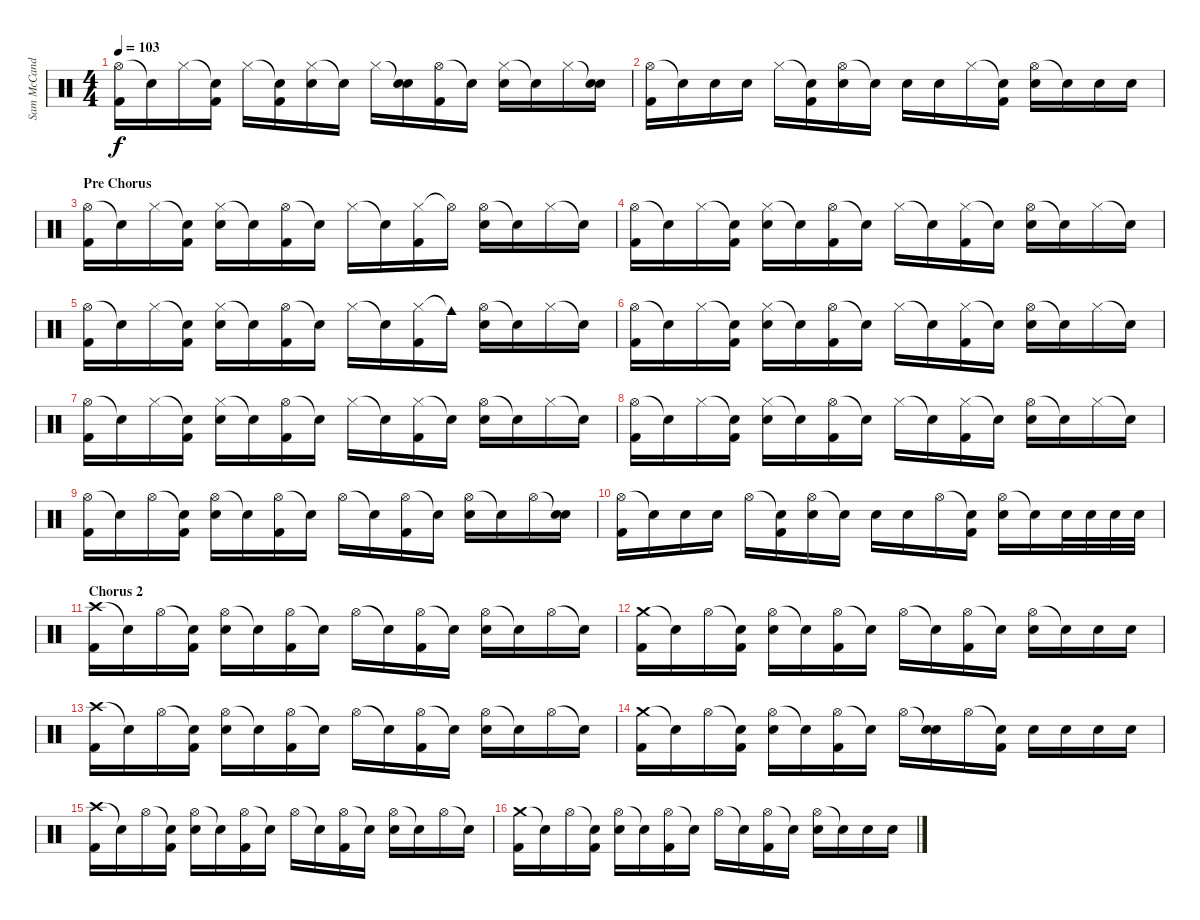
\track ("Sam McCandless (Drums)" "Sam McCand") {instrument percussion}
\staff {score}
\articulation defaults
\ts (4 4)
\tempo 103
\clef neutral
\ks c
("Hi-Hat (open)" "Kick (hit) 2").16{dy f} "Snare (hit)"{t}.16 "Hi-Hat (closed)".16 ("Snare (hit)"{t} "Kick (hit) 2").16 "Hi-Hat (closed)".16 ("Snare (hit)"{t} "Kick (hit) 2").16 ("Hi-Hat (closed)" "Electric Snare (hit)").16 "Snare (hit)"{t}.16 "Hi-Hat (closed)".16 ("Snare (hit)"{t} "Electric Snare (hit)").16 ("Hi-Hat (open)" "Kick (hit) 2").16 "Snare (hit)"{t}.16 ("Hi-Hat (closed)" "Electric Snare (hit)").16 "Snare (hit)"{t}.16 "Hi-Hat (closed)".16 ("Snare (hit)"{t} "Electric Snare (hit)").16 |
("Hi-Hat (open)" "Kick (hit) 2").16 "Snare (hit)"{t}.16 "Electric Snare (hit)".16 "Electric Snare (hit)".16 "Hi-Hat (closed)".16 ("Snare (hit)"{t} "Kick (hit) 2").16 ("Hi-Hat (open)" "Electric Snare (hit)").16 "Snare (hit)"{t}.16 "Electric Snare (hit)".16 "Electric Snare (hit)".16 "Hi-Hat (closed)".16 ("Snare (hit)"{t} "Kick (hit) 2").16 ("Hi-Hat (open)" "Electric Snare (hit)").16 "Snare (hit)"{t}.16 "Electric Snare (hit)".16 "Electric Snare (hit)".16 |
\section ("" "Pre Chorus")
("Hi-Hat (open)" "Kick (hit) 2").16 "Snare (hit)"{t}.16 "Hi-Hat (closed)".16 ("Snare (hit)"{t} "Kick (hit) 2").16 ("Hi-Hat (closed)" "Electric Snare (hit)").16 "Snare (hit)"{t}.16 ("Hi-Hat (open)" "Kick (hit) 2").16 "Snare (hit)"{t}.16 "Hi-Hat (closed)".16 "Snare (hit)"{t}.16 ("Hi-Hat (closed)" "Kick (hit) 2").16 "Hi-Hat (open)"{t}.16 ("Hi-Hat (open)" "Electric Snare (hit)").16 "Snare (hit)"{t}.16 "Hi-Hat (closed)".16 "Snare (hit)"{t}.16 |
("Hi-Hat (open)" "Kick (hit) 2").16 "Snare (hit)"{t}.16 "Hi-Hat (closed)".16 ("Snare (hit)"{t} "Kick (hit) 2").16 ("Hi-Hat (closed)" "Electric Snare (hit)").16 "Snare (hit)"{t}.16 ("Hi-Hat (open)" "Kick (hit) 2").16 "Snare (hit)"{t}.16 "Hi-Hat (closed)".16 "Snare (hit)"{t}.16 ("Hi-Hat (closed)" "Kick (hit) 2").16 "Snare (hit)"{t}.16 ("Hi-Hat (open)" "Electric Snare (hit)").16 "Snare (hit)"{t}.16 "Hi-Hat (closed)".16 "Snare (hit)"{t}.16 |
("Hi-Hat (open)" "Kick (hit) 2").16 "Snare (hit)"{t}.16 "Hi-Hat (closed)".16 ("Snare (hit)"{t} "Kick (hit) 2").16 ("Hi-Hat (closed)" "Electric Snare (hit)").16 "Snare (hit)"{t}.16 ("Hi-Hat (open)" "Kick (hit) 2").16 "Snare (hit)"{t}.16 "Hi-Hat (closed)".16 "Snare (hit)"{t}.16 ("Hi-Hat (closed)" "Kick (hit) 2").16 "Cowbell medium (hit)"{t}.16 ("Hi-Hat (open)" "Electric Snare (hit)").16 "Snare (hit)"{t}.16 "Hi-Hat (closed)".16 "Snare (hit)"{t}.16 |
("Hi-Hat (open)" "Kick (hit) 2").16 "Snare (hit)"{t}.16 "Hi-Hat (closed)".16 ("Snare (hit)"{t} "Kick (hit) 2").16 ("Hi-Hat (closed)" "Electric Snare (hit)").16 "Snare (hit)"{t}.16 ("Hi-Hat (open)" "Kick (hit) 2").16 "Snare (hit)"{t}.16 "Hi-Hat (closed)".16 "Snare (hit)"{t}.16 ("Hi-Hat (closed)" "Kick (hit) 2").16 "Snare (hit)"{t}.16 ("Hi-Hat (open)" "Electric Snare (hit)").16 "Snare (hit)"{t}.16 "Hi-Hat (closed)".16 "Snare (hit)"{t}.16 |
("Hi-Hat (open)" "Kick (hit) 2").16 "Snare (hit)"{t}.16 "Hi-Hat (closed)".16 ("Snare (hit)"{t} "Kick (hit) 2").16 ("Hi-Hat (closed)" "Electric Snare (hit)").16 "Snare (hit)"{t}.16 ("Hi-Hat (open)" "Kick (hit) 2").16 "Snare (hit)"{t}.16 "Hi-Hat (closed)".16 "Snare (hit)"{t}.16 ("Hi-Hat (closed)" "Kick (hit) 2").16 "Snare (hit)"{t}.16 ("Hi-Hat (open)" "Electric Snare (hit)").16 "Snare (hit)"{t}.16 "Hi-Hat (closed)".16 "Snare (hit)"{t}.16 |
("Hi-Hat (open)" "Kick (hit) 2").16 "Snare (hit)"{t}.16 "Hi-Hat (closed)".16 ("Snare (hit)"{t} "Kick (hit) 2").16 ("Hi-Hat (closed)" "Electric Snare (hit)").16 "Snare (hit)"{t}.16 ("Hi-Hat (open)" "Kick (hit) 2").16 "Snare (hit)"{t}.16 "Hi-Hat (closed)".16 "Snare (hit)"{t}.16 ("Hi-Hat (closed)" "Kick (hit) 2").16 "Snare (hit)"{t}.16 ("Hi-Hat (open)" "Electric Snare (hit)").16 "Snare (hit)"{t}.16 "Hi-Hat (closed)".16 "Snare (hit)"{t}.16 |
("Hi-Hat (open)" "Kick (hit) 2").16 "Snare (hit)"{t}.16 "Hi-Hat (open)".16 ("Snare (hit)"{t} "Kick (hit) 2").16 ("Hi-Hat (open)" "Electric Snare (hit)").16 "Snare (hit)"{t}.16 ("Hi-Hat (open)" "Kick (hit) 2").16 "Snare (hit)"{t}.16 "Hi-Hat (open)".16 "Snare (hit)"{t}.16 ("Hi-Hat (open)" "Kick (hit) 2").16 "Snare (hit)"{t}.16 ("Hi-Hat (open)" "Electric Snare (hit)").16 "Snare (hit)"{t}.16 "Hi-Hat (open)".16 ("Snare (hit)"{t} "Electric Snare (hit)").16 |
("Hi-Hat (open)" "Kick (hit) 2").16 "Snare (hit)"{t}.16 "Electric Snare (hit)".16 "Electric Snare (hit)".16 "Hi-Hat (open)".16 ("Snare (hit)"{t} "Kick (hit) 2").16 ("Hi-Hat (open)" "Electric Snare (hit)").16 "Snare (hit)"{t}.16 "Electric Snare (hit)".16 "Electric Snare (hit)".16 "Hi-Hat (open)".16 ("Snare (hit)"{t} "Kick (hit) 2").16 ("Hi-Hat (open)" "Electric Snare (hit)").16 "Snare (hit)"{t}.16 "Electric Snare (hit)".32 "Electric Snare (hit)".32 "Electric Snare (hit)".32 "Electric Snare (hit)".32 |
\section ("" "Chorus 2")
("Crash high (hit)" "Kick (hit) 2").16 "Snare (hit)"{t}.16 "Hi-Hat (open)".16 ("Snare (hit)"{t} "Kick (hit) 2").16 ("Hi-Hat (open)" "Electric Snare (hit)").16 "Snare (hit)"{t}.16 ("Hi-Hat (open)" "Kick (hit) 2").16 "Snare (hit)"{t}.16 "Hi-Hat (open)".16 "Snare (hit)"{t}.16 ("Hi-Hat (open)" "Kick (hit) 2").16 "Snare (hit)"{t}.16 ("Hi-Hat (open)" "Electric Snare (hit)").16 "Snare (hit)"{t}.16 "Hi-Hat (open)".16 "Snare (hit)"{t}.16 |
("Crash medium (hit)" "Kick (hit) 2").16 "Snare (hit)"{t}.16 "Hi-Hat (open)".16 ("Snare (hit)"{t} "Kick (hit) 2").16 ("Hi-Hat (open)" "Electric Snare (hit)").16 "Snare (hit)"{t}.16 ("Hi-Hat (open)" "Kick (hit) 2").16 "Snare (hit)"{t}.16 "Hi-Hat (open)".16 "Snare (hit)"{t}.16 ("Hi-Hat (open)" "Kick (hit) 2").16 "Snare (hit)"{t}.16 ("Hi-Hat (open)" "Electric Snare (hit)").16 "Snare (hit)"{t}.16 "Electric Snare (hit)".16 "Electric Snare (hit)".16 |
("Crash high (hit)" "Kick (hit) 2").16 "Snare (hit)"{t}.16 "Hi-Hat (open)".16 ("Snare (hit)"{t} "Kick (hit) 2").16 ("Hi-Hat (open)" "Electric Snare (hit)").16 "Snare (hit)"{t}.16 ("Hi-Hat (open)" "Kick (hit) 2").16 "Snare (hit)"{t}.16 "Hi-Hat (open)".16 "Snare (hit)"{t}.16 ("Hi-Hat (open)" "Kick (hit) 2").16 "Snare (hit)"{t}.16 ("Hi-Hat (open)" "Electric Snare (hit)").16 "Snare (hit)"{t}.16 "Hi-Hat (open)".16 "Snare (hit)"{t}.16 |
("Crash medium (hit)" "Kick (hit) 2").16 "Snare (hit)"{t}.16 "Hi-Hat (open)".16 ("Snare (hit)"{t} "Kick (hit) 2").16 ("Hi-Hat (open)" "Electric Snare (hit)").16 "Snare (hit)"{t}.16 ("Hi-Hat (open)" "Kick (hit) 2").16 "Snare (hit)"{t}.16 "Hi-Hat (open)".16 ("Snare (hit)"{t} "Electric Snare (hit)").16 "Hi-Hat (open)".16 ("Snare (hit)"{t} "Kick (hit) 2").16 "Electric Snare (hit)".16 "Electric Snare (hit)".16 "Electric Snare (hit)".16 "Electric Snare (hit)".16 |
("Crash high (hit)" "Kick (hit) 2").16 "Snare (hit)"{t}.16 "Hi-Hat (open)".16 ("Snare (hit)"{t} "Kick (hit) 2").16 ("Hi-Hat (open)" "Electric Snare (hit)").16 "Snare (hit)"{t}.16 ("Hi-Hat (open)" "Kick (hit) 2").16 "Snare (hit)"{t}.16 "Hi-Hat (open)".16 "Snare (hit)"{t}.16 ("Hi-Hat (open)" "Kick (hit) 2").16 "Snare (hit)"{t}.16 ("Hi-Hat (open)" "Electric Snare (hit)").16 "Snare (hit)"{t}.16 "Hi-Hat (open)".16 "Snare (hit)"{t}.16 |
("Crash medium (hit)" "Kick (hit) 2").16 "Snare (hit)"{t}.16 "Hi-Hat (open)".16 ("Snare (hit)"{t} "Kick (hit) 2").16 ("Hi-Hat (open)" "Electric Snare (hit)").16 "Snare (hit)"{t}.16 ("Hi-Hat (open)" "Kick (hit) 2").16 "Snare (hit)"{t}.16 "Hi-Hat (open)".16 "Snare (hit)"{t}.16 ("Hi-Hat (open)" "Kick (hit) 2").16 "Snare (hit)"{t}.16 ("Hi-Hat (open)" "Electric Snare (hit)").16 "Snare (hit)"{t}.16 "Electric Snare (hit)".16 "Electric Snare (hit)".16
